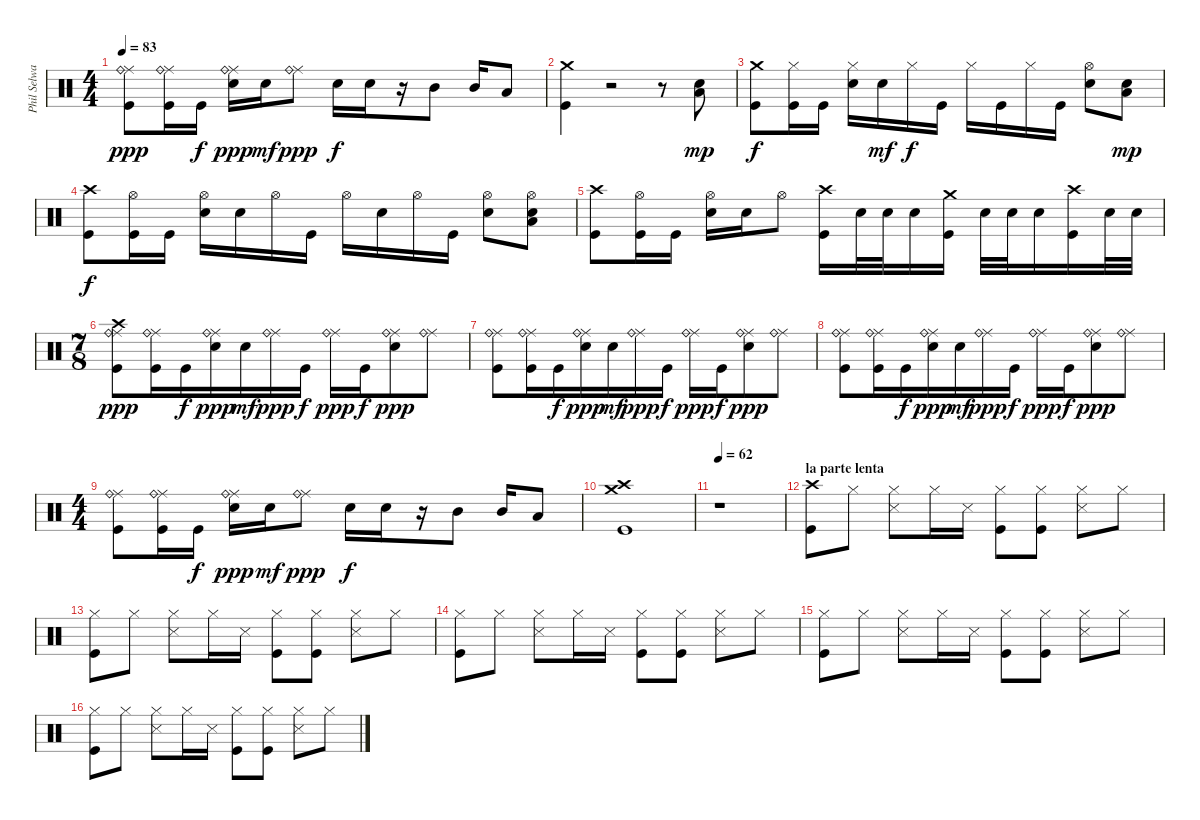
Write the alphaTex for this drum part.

\track ("Phil Selway" "Phil Selwa") {instrument percussion}
\staff {score}
\articulation defaults
\ts (4 4)
\tempo 83
\clef neutral
\ks c
("Ride (middle)" "Ride (bell)" "Kick (hit)").8{dy ppp} ("Ride (middle)" "Ride (bell)" "Kick (hit)").16 "Kick (hit)".16{dy f} ("Ride (middle)" "Ride (bell)" "Snare (hit) 2").16{dy ppp} "Snare (hit) 2".16{dy mf} ("Ride (middle)" "Ride (bell)").8{dy ppp} "Snare (hit) 2".16{dy f} "Snare (hit) 2".16 r.16 "Mid Tom (hit)".8 "Mid Tom (hit)".16 "Low Tom (hit)".8 |
("Crash medium (hit)" "Kick (hit)").4 r.2 r.8 ("Snare (hit) 2" "Low Tom (hit)").8{dy mp} |
("Crash medium (hit)" "Kick (hit)").8{dy f} ("Hi-Hat (closed)" "Kick (hit)").16 "Kick (hit)".16 ("Hi-Hat (closed)" "Snare (hit) 2").16 "Snare (hit) 2".16{dy mf} "Hi-Hat (closed)".16{dy f} "Kick (hit)".16 "Hi-Hat (closed)".16 "Kick (hit)".16 "Hi-Hat (closed)".16 "Kick (hit)".16 ("Hi-Hat (open)" "Snare (hit) 2").8 ("Snare (hit) 2" "Low Floor Tom (hit)").8{dy mp} |
("Crash high (hit)" "Kick (hit)").8{dy f} ("Hi-Hat (open)" "Kick (hit)").16 "Kick (hit)".16 ("Hi-Hat (open)" "Snare (hit) 2").16 "Snare (hit) 2".16 "Hi-Hat (open)".16 "Kick (hit)".16 "Hi-Hat (open)".16 "Snare (hit) 2".16 "Hi-Hat (open)".16 "Kick (hit)".16 ("Hi-Hat (open)" "Snare (hit) 2").8 ("Hi-Hat (open)" "Snare (hit) 2" "Low Floor Tom (hit)").8 |
("Crash high (hit)" "Kick (hit)").8 ("Hi-Hat (open)" "Kick (hit)").16 "Kick (hit)".16 ("Hi-Hat (open)" "Snare (hit) 2").16 "Snare (hit) 2".16 "Hi-Hat (open)".8 ("Crash high (hit)" "Kick (hit)").16 "Snare (hit) 2".32 "Snare (hit) 2".32 "Snare (hit) 2".16 ("Crash medium (hit)" "Kick (hit)").16 "Snare (hit) 2".32 "Snare (hit) 2".32 "Snare (hit) 2".16 ("Crash high (hit)" "Kick (hit)").16 "Snare (hit) 2".32 "Snare (hit) 2".32 |
\ts (7 8)
("Ride (middle)" "Ride (bell)" "Crash high (hit)" "Kick (hit)").8{dy ppp} ("Ride (middle)" "Ride (bell)" "Kick (hit)").16 "Kick (hit)".16{dy f} ("Ride (middle)" "Ride (bell)" "Snare (hit) 2").16{dy ppp} "Snare (hit) 2".16{dy mf} ("Ride (middle)" "Ride (bell)").16{dy ppp} "Kick (hit)".16{dy f} ("Ride (middle)" "Ride (bell)").16{dy ppp} "Kick (hit)".16{dy f} ("Ride (middle)" "Ride (bell)" "Snare (hit) 2").8{dy ppp} ("Ride (middle)" "Ride (bell)").8 |
("Ride (middle)" "Ride (bell)" "Kick (hit)").8 ("Ride (middle)" "Ride (bell)" "Kick (hit)").16 "Kick (hit)".16{dy f} ("Ride (middle)" "Ride (bell)" "Snare (hit) 2").16{dy ppp} "Snare (hit) 2".16{dy mf} ("Ride (middle)" "Ride (bell)").16{dy ppp} "Kick (hit)".16{dy f} ("Ride (middle)" "Ride (bell)").16{dy ppp} "Kick (hit)".16{dy f} ("Ride (middle)" "Ride (bell)" "Snare (hit) 2").8{dy ppp} ("Ride (middle)" "Ride (bell)").8 |
("Ride (middle)" "Ride (bell)" "Kick (hit)").8 ("Ride (middle)" "Ride (bell)" "Kick (hit)").16 "Kick (hit)".16{dy f} ("Ride (middle)" "Ride (bell)" "Snare (hit) 2").16{dy ppp} "Snare (hit) 2".16{dy mf} ("Ride (middle)" "Ride (bell)").16{dy ppp} "Kick (hit)".16{dy f} ("Ride (middle)" "Ride (bell)").16{dy ppp} "Kick (hit)".16{dy f} ("Ride (middle)" "Ride (bell)" "Snare (hit) 2").8{dy ppp} ("Ride (middle)" "Ride (bell)").8 |
\ts (4 4)
("Ride (middle)" "Ride (bell)" "Kick (hit)").8 ("Ride (middle)" "Ride (bell)" "Kick (hit)").16 "Kick (hit)".16{dy f} ("Ride (middle)" "Ride (bell)" "Snare (hit) 2").16{dy ppp} "Snare (hit) 2".16{dy mf} ("Ride (middle)" "Ride (bell)").8{dy ppp} "Snare (hit) 2".16{dy f} "Snare (hit) 2".16 r.16 "Mid Tom (hit)".8 "Mid Tom (hit)".16 "Low Tom (hit)".8 |
("Crash high (hit)" "Crash medium (hit)" "Kick (hit)").1 |
\tempo 62
r.1 |
\section ("" "la parte lenta")
("Crash high (hit)" "Kick (hit)").8 "Hi-Hat (closed)".8 ("Hi-Hat (closed)" "Snare (side stick) 3").8 "Hi-Hat (closed)".16 "Snare (side stick) 3".16 ("Hi-Hat (closed)" "Kick (hit)").8 ("Hi-Hat (closed)" "Kick (hit)").8 ("Hi-Hat (closed)" "Snare (side stick) 3").8 "Hi-Hat (closed)".8 |
("Hi-Hat (closed)" "Kick (hit)").8 "Hi-Hat (closed)".8 ("Hi-Hat (closed)" "Snare (side stick) 3").8 "Hi-Hat (closed)".16 "Snare (side stick) 3".16 ("Hi-Hat (closed)" "Kick (hit)").8 ("Hi-Hat (closed)" "Kick (hit)").8 ("Hi-Hat (closed)" "Snare (side stick) 3").8 "Hi-Hat (closed)".8 |
("Hi-Hat (closed)" "Kick (hit)").8 "Hi-Hat (closed)".8 ("Hi-Hat (closed)" "Snare (side stick) 3").8 "Hi-Hat (closed)".16 "Snare (side stick) 3".16 ("Hi-Hat (closed)" "Kick (hit)").8 ("Hi-Hat (closed)" "Kick (hit)").8 ("Hi-Hat (closed)" "Snare (side stick) 3").8 "Hi-Hat (closed)".8 |
("Hi-Hat (closed)" "Kick (hit)").8 "Hi-Hat (closed)".8 ("Hi-Hat (closed)" "Snare (side stick) 3").8 "Hi-Hat (closed)".16 "Snare (side stick) 3".16 ("Hi-Hat (closed)" "Kick (hit)").8 ("Hi-Hat (closed)" "Kick (hit)").8 ("Hi-Hat (closed)" "Snare (side stick) 3").8 "Hi-Hat (closed)".8 |
("Hi-Hat (closed)" "Kick (hit)").8 "Hi-Hat (closed)".8 ("Hi-Hat (closed)" "Snare (side stick) 3").8 "Hi-Hat (closed)".16 "Snare (side stick) 3".16 ("Hi-Hat (closed)" "Kick (hit)").8 ("Hi-Hat (closed)" "Kick (hit)").8 ("Hi-Hat (closed)" "Snare (side stick) 3").8 "Hi-Hat (closed)".8
